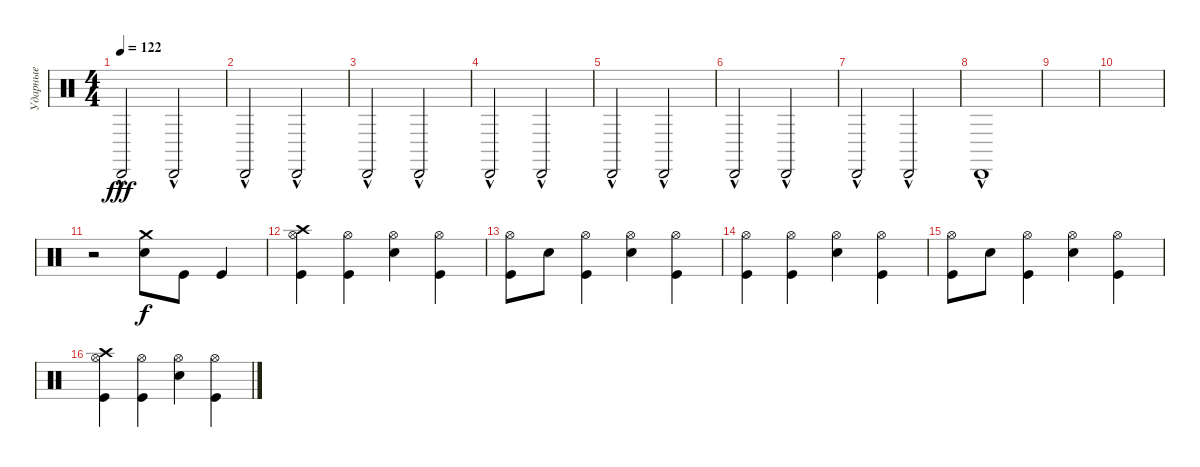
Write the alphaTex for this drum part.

\track ("Ударные" "Ударные") {instrument percussion}
\staff {score}
\articulation defaults
\ts (4 4)
\tempo 122
\clef neutral
\ks c "Cabasa (hit)"{hac}.2{dy fff} "Cabasa (hit)"{hac}.2
|
"Cabasa (hit)"{hac}.2 "Cabasa (hit)"{hac}.2 |
"Cabasa (hit)"{hac}.2 "Cabasa (hit)"{hac}.2 |
"Cabasa (hit)"{hac}.2 "Cabasa (hit)"{hac}.2 |
"Cabasa (hit)"{hac}.2 "Cabasa (hit)"{hac}.2 |
"Cabasa (hit)"{hac}.2 "Cabasa (hit)"{hac}.2 |
"Cabasa (hit)"{hac}.2 "Cabasa (hit)"{hac}.2 |
"Cabasa (hit)"{hac}.1 |
|
|
r.2 ("Snare (hit) 2" "Crash medium (hit)").8{dy f} "Kick (hit)".8 "Kick (hit)".4 |
("Kick (hit)" "Hi-Hat (open)" "Crash high (hit)").4 ("Kick (hit)" "Hi-Hat (open)").4 ("Snare (hit) 2" "Hi-Hat (open)").4 ("Kick (hit)" "Hi-Hat (open)").4 |
("Kick (hit)" "Hi-Hat (open)").8 "Snare (hit) 2".8 ("Kick (hit)" "Hi-Hat (open)").4 ("Snare (hit) 2" "Hi-Hat (open)").4 ("Kick (hit)" "Hi-Hat (open)").4 |
("Kick (hit)" "Hi-Hat (open)").4 ("Kick (hit)" "Hi-Hat (open)").4 ("Snare (hit) 2" "Hi-Hat (open)").4 ("Kick (hit)" "Hi-Hat (open)").4 |
("Kick (hit)" "Hi-Hat (open)").8 "Snare (hit) 2".8 ("Kick (hit)" "Hi-Hat (open)").4 ("Snare (hit) 2" "Hi-Hat (open)").4 ("Kick (hit)" "Hi-Hat (open)").4 |
("Kick (hit)" "Hi-Hat (open)" "Crash high (hit)").4 ("Kick (hit)" "Hi-Hat (open)").4 ("Snare (hit) 2" "Hi-Hat (open)").4 ("Kick (hit)" "Hi-Hat (open)").4
